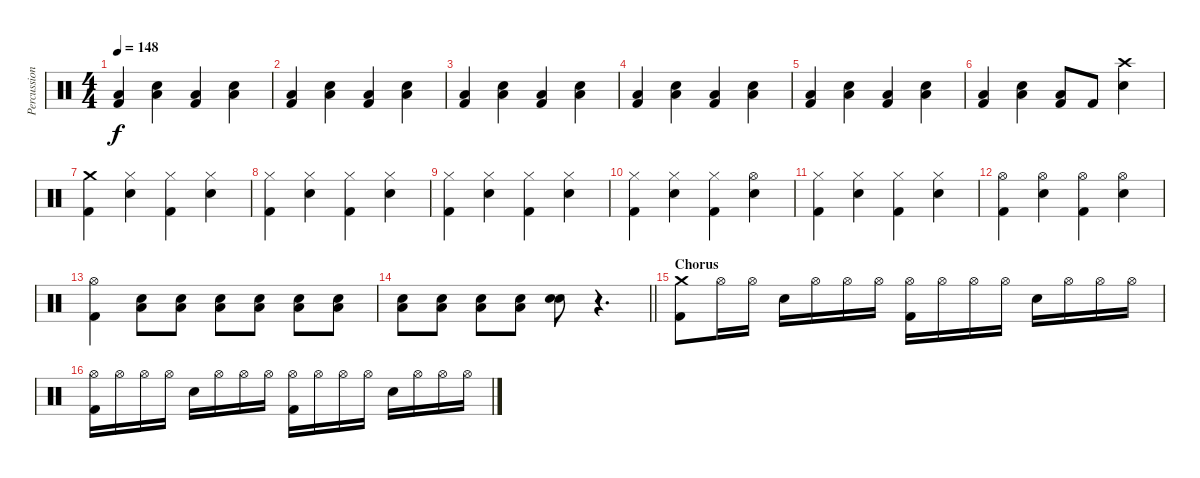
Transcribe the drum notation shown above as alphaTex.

\track ("Percussion" "Percussion") {instrument percussion}
\staff {score}
\articulation defaults
\ts (4 4)
\tempo 148
\clef neutral
\ks c
("Low Floor Tom (hit)" "Kick (hit) 2").4{dy f} ("Low Floor Tom (hit)" "Snare (hit) 2").4 ("Low Floor Tom (hit)" "Kick (hit) 2").4 ("Low Floor Tom (hit)" "Snare (hit) 2").4 |
("Low Floor Tom (hit)" "Kick (hit) 2").4 ("Low Floor Tom (hit)" "Snare (hit) 2").4 ("Low Floor Tom (hit)" "Kick (hit) 2").4 ("Low Floor Tom (hit)" "Snare (hit) 2").4 |
("Low Floor Tom (hit)" "Kick (hit) 2").4 ("Low Floor Tom (hit)" "Snare (hit) 2").4 ("Low Floor Tom (hit)" "Kick (hit) 2").4 ("Low Floor Tom (hit)" "Snare (hit) 2").4 |
("Low Floor Tom (hit)" "Kick (hit) 2").4 ("Low Floor Tom (hit)" "Snare (hit) 2").4 ("Low Floor Tom (hit)" "Kick (hit) 2").4 ("Low Floor Tom (hit)" "Snare (hit) 2").4 |
("Low Floor Tom (hit)" "Kick (hit) 2").4 ("Low Floor Tom (hit)" "Snare (hit) 2").4 ("Low Floor Tom (hit)" "Kick (hit) 2").4 ("Low Floor Tom (hit)" "Snare (hit) 2").4 |
("Low Floor Tom (hit)" "Kick (hit) 2").4 ("Low Floor Tom (hit)" "Snare (hit) 2").4 ("Low Floor Tom (hit)" "Kick (hit) 2").8 "Kick (hit) 2".8 ("Crash high (hit)" "Snare (hit) 2").4 |
("Crash medium (hit)" "Kick (hit) 2").4 ("Hi-Hat (closed)" "Snare (hit) 2").4 ("Hi-Hat (closed)" "Kick (hit) 2").4 ("Hi-Hat (closed)" "Snare (hit) 2").4 |
("Hi-Hat (closed)" "Kick (hit) 2").4 ("Hi-Hat (closed)" "Snare (hit) 2").4 ("Hi-Hat (closed)" "Kick (hit) 2").4 ("Hi-Hat (closed)" "Snare (hit) 2").4 |
("Hi-Hat (closed)" "Kick (hit) 2").4 ("Hi-Hat (closed)" "Snare (hit) 2").4 ("Hi-Hat (closed)" "Kick (hit) 2").4 ("Hi-Hat (closed)" "Snare (hit) 2").4 |
("Hi-Hat (closed)" "Kick (hit) 2").4 ("Hi-Hat (closed)" "Snare (hit) 2").4 ("Hi-Hat (closed)" "Kick (hit) 2").4 ("Hi-Hat (open)" "Snare (hit) 2").4 |
("Hi-Hat (closed)" "Kick (hit) 2").4 ("Hi-Hat (closed)" "Snare (hit) 2").4 ("Hi-Hat (closed)" "Kick (hit) 2").4 ("Hi-Hat (closed)" "Snare (hit) 2").4 |
("Hi-Hat (open)" "Kick (hit) 2").4 ("Hi-Hat (open)" "Snare (hit) 2").4 ("Hi-Hat (open)" "Kick (hit) 2").4 ("Hi-Hat (open)" "Snare (hit) 2").4 |
("Hi-Hat (open)" "Kick (hit) 2").4 ("Low Floor Tom (hit)" "Snare (hit) 2").8 ("Low Floor Tom (hit)" "Snare (hit) 2").8 ("Low Floor Tom (hit)" "Snare (hit) 2").8 ("Low Floor Tom (hit)" "Snare (hit) 2").8 ("Low Floor Tom (hit)" "Snare (hit) 2").8 ("Low Floor Tom (hit)" "Snare (hit) 2").8 |
\barLineRight lightlight
("Low Floor Tom (hit)" "Snare (hit) 2").8 ("Low Floor Tom (hit)" "Snare (hit) 2").8 ("Low Floor Tom (hit)" "Snare (hit) 2").8 ("Low Floor Tom (hit)" "Snare (hit) 2").8 ("Snare (hit) 2" "Snare (hit) 2").8 r.4{d} |
\section ("" "Chorus")
("Crash medium (hit)" "Kick (hit) 2").8 "Hi-Hat (open)".16 "Hi-Hat (open)".16 "Snare (hit) 2".16 "Hi-Hat (open)".16 "Hi-Hat (open)".16 "Hi-Hat (open)".16 ("Hi-Hat (open)" "Kick (hit) 2").16 "Hi-Hat (open)".16 "Hi-Hat (open)".16 "Hi-Hat (open)".16 "Snare (hit) 2".16 "Hi-Hat (open)".16 "Hi-Hat (open)".16 "Hi-Hat (open)".16 |
("Hi-Hat (open)" "Kick (hit) 2").16 "Hi-Hat (open)".16 "Hi-Hat (open)".16 "Hi-Hat (open)".16 "Snare (hit) 2".16 "Hi-Hat (open)".16 "Hi-Hat (open)".16 "Hi-Hat (open)".16 ("Hi-Hat (open)" "Kick (hit) 2").16 "Hi-Hat (open)".16 "Hi-Hat (open)".16 "Hi-Hat (open)".16 "Snare (hit) 2".16 "Hi-Hat (open)".16 "Hi-Hat (open)".16 "Hi-Hat (open)".16
